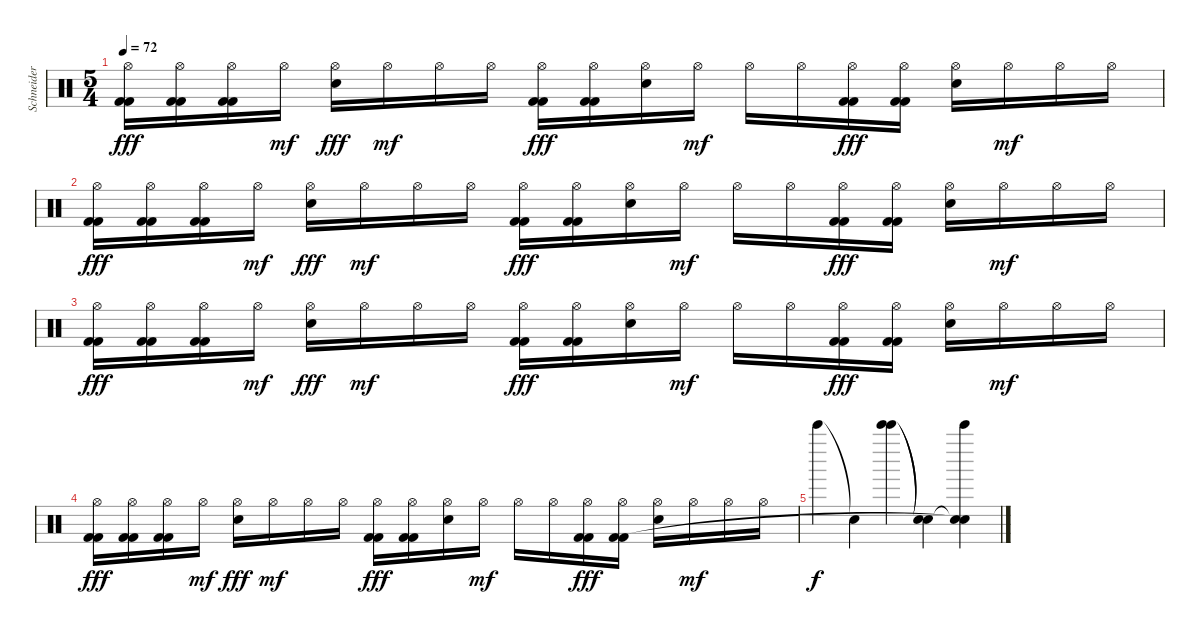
\track ("Schneider" "Schneider") {instrument percussion}
\staff {score}
\articulation defaults
\ts (5 4)
\tempo 72
\clef neutral
\ks c
("Hi-Hat (open)" "Kick (hit) 2" "Kick (hit) 2").16{dy fff} ("Hi-Hat (open)" "Kick (hit) 2" "Kick (hit) 2").16 ("Hi-Hat (open)" "Kick (hit) 2" "Kick (hit) 2").16 "Hi-Hat (open)".16{dy mf} ("Hi-Hat (open)" "Snare (hit) 2").16{dy fff} "Hi-Hat (open)".16{dy mf} "Hi-Hat (open)".16 "Hi-Hat (open)".16 ("Hi-Hat (open)" "Kick (hit) 2" "Kick (hit) 2").16{dy fff} ("Hi-Hat (open)" "Kick (hit) 2" "Kick (hit) 2").16 ("Hi-Hat (open)" "Snare (hit) 2").16 "Hi-Hat (open)".16{dy mf} "Hi-Hat (open)".16 "Hi-Hat (open)".16 ("Hi-Hat (open)" "Kick (hit) 2" "Kick (hit) 2").16{dy fff} ("Hi-Hat (open)" "Kick (hit) 2" "Kick (hit) 2").16 ("Hi-Hat (open)" "Snare (hit) 2").16 "Hi-Hat (open)".16{dy mf} "Hi-Hat (open)".16 "Hi-Hat (open)".16 |
("Hi-Hat (open)" "Kick (hit) 2" "Kick (hit) 2").16{dy fff} ("Hi-Hat (open)" "Kick (hit) 2" "Kick (hit) 2").16 ("Hi-Hat (open)" "Kick (hit) 2" "Kick (hit) 2").16 "Hi-Hat (open)".16{dy mf} ("Hi-Hat (open)" "Snare (hit) 2").16{dy fff} "Hi-Hat (open)".16{dy mf} "Hi-Hat (open)".16 "Hi-Hat (open)".16 ("Hi-Hat (open)" "Kick (hit) 2" "Kick (hit) 2").16{dy fff} ("Hi-Hat (open)" "Kick (hit) 2" "Kick (hit) 2").16 ("Hi-Hat (open)" "Snare (hit) 2").16 "Hi-Hat (open)".16{dy mf} "Hi-Hat (open)".16 "Hi-Hat (open)".16 ("Hi-Hat (open)" "Kick (hit) 2" "Kick (hit) 2").16{dy fff} ("Hi-Hat (open)" "Kick (hit) 2" "Kick (hit) 2").16 ("Hi-Hat (open)" "Snare (hit) 2").16 "Hi-Hat (open)".16{dy mf} "Hi-Hat (open)".16 "Hi-Hat (open)".16 |
("Hi-Hat (open)" "Kick (hit) 2" "Kick (hit) 2").16{dy fff} ("Hi-Hat (open)" "Kick (hit) 2" "Kick (hit) 2").16 ("Hi-Hat (open)" "Kick (hit) 2" "Kick (hit) 2").16 "Hi-Hat (open)".16{dy mf} ("Hi-Hat (open)" "Snare (hit) 2").16{dy fff} "Hi-Hat (open)".16{dy mf} "Hi-Hat (open)".16 "Hi-Hat (open)".16 ("Hi-Hat (open)" "Kick (hit) 2" "Kick (hit) 2").16{dy fff} ("Hi-Hat (open)" "Kick (hit) 2" "Kick (hit) 2").16 ("Hi-Hat (open)" "Snare (hit) 2").16 "Hi-Hat (open)".16{dy mf} "Hi-Hat (open)".16 "Hi-Hat (open)".16 ("Hi-Hat (open)" "Kick (hit) 2" "Kick (hit) 2").16{dy fff} ("Hi-Hat (open)" "Kick (hit) 2" "Kick (hit) 2").16 ("Hi-Hat (open)" "Snare (hit) 2").16 "Hi-Hat (open)".16{dy mf} "Hi-Hat (open)".16 "Hi-Hat (open)".16 |
("Hi-Hat (open)" "Kick (hit) 2" "Kick (hit) 2").16{dy fff} ("Hi-Hat (open)" "Kick (hit) 2" "Kick (hit) 2").16 ("Hi-Hat (open)" "Kick (hit) 2" "Kick (hit) 2").16 "Hi-Hat (open)".16{dy mf} ("Hi-Hat (open)" "Snare (hit) 2").16{dy fff} "Hi-Hat (open)".16{dy mf} "Hi-Hat (open)".16 "Hi-Hat (open)".16 ("Hi-Hat (open)" "Kick (hit) 2" "Kick (hit) 2").16{dy fff} ("Hi-Hat (open)" "Kick (hit) 2" "Kick (hit) 2").16 ("Hi-Hat (open)" "Snare (hit) 2").16 "Hi-Hat (open)".16{dy mf} "Hi-Hat (open)".16 "Hi-Hat (open)".16 ("Hi-Hat (open)" "Kick (hit) 2" "Kick (hit) 2").16{dy fff} ("Hi-Hat (open)" "Kick (hit) 2" "Kick (hit) 2").16 ("Hi-Hat (open)" "Snare (hit) 2").16 "Hi-Hat (open)".16{dy mf} "Hi-Hat (open)".16 "Hi-Hat (open)".16 |
"Bell Tree (hit)".4{dy f volume 9} "Snare (hit)"{t}.4 ("Bell Tree (hit)" "Bell Tree (hit)").4 ("Snare (hit)"{t} "Snare (hit)"{t}).4 ("Snare (hit)"{t} "Bell Tree (hit)" "Snare (hit)"{t}).4
